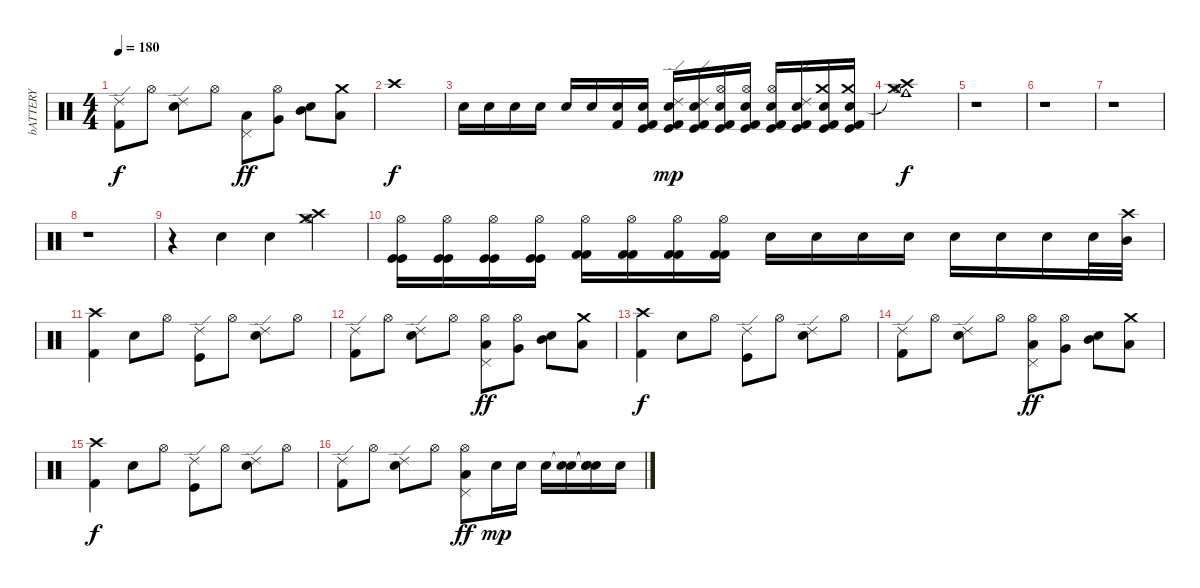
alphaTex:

\track ("bATTERY" "bATTERY") {instrument percussion}
\staff {score}
\articulation defaults
\ts (4 4)
\tempo 180
\clef neutral
\ks c
("Kick (hit) 2" "Ride (edge) 2").8{dy f} "Hi-Hat (open)".8 ("Electric Snare (hit)" "Ride (edge) 2").8 "Hi-Hat (open)".8 ("Pedal Hi-Hat (hit)" "Low Tom (hit)").8{dy ff} ("Very Low Tom (hit)" "Hi-Hat (open)").8 ("Mid Tom (hit)" "Electric Snare (hit)").8 ("Low Floor Tom (hit)" "Crash medium (hit)").8 |
"Crash high (hit)".1{dy f} |
"Electric Snare (hit)".16 "Electric Snare (hit)".16 "Electric Snare (hit)".16 "Electric Snare (hit)".16 "Electric Snare (hit)".16 "Electric Snare (hit)".16 ("Kick (hit) 2" "Electric Snare (hit)").16 ("Kick (hit) 2" "Kick (hit)" "Electric Snare (hit)").16 ("Kick (hit) 2" "Kick (hit)" "Ride (edge) 2" "Snare (hit) 2").16{dy mp} ("Kick (hit) 2" "Kick (hit)" "Ride (edge) 2" "Snare (hit) 2").16 ("Kick (hit) 2" "Kick (hit)" "Hi-Hat (open)" "Electric Snare (hit)").16 ("Kick (hit) 2" "Kick (hit)" "Hi-Hat (open)" "Electric Snare (hit)").16 ("Kick (hit) 2" "Kick (hit)" "Hi-Hat (open)" "Snare (hit) 2").16 ("Kick (hit) 2" "Kick (hit)" "Ride (edge) 2" "Snare (hit) 2").16 ("Kick (hit) 2" "Kick (hit)" "Crash medium (hit)" "Electric Snare (hit)").16 ("Kick (hit) 2" "Kick (hit)" "Crash medium (hit)" "Electric Snare (hit)").16 |
("Hi-Hat (open)" "Crash medium (hit)" "Crash high (hit)" "Cowbell medium (hit)"{t}).1{dy f} |
r.1 |
r.1 |
r.1 |
r.1 |
r.4 "Electric Snare (hit)".4 "Electric Snare (hit)".4 ("Crash medium (hit)" "Hi-Hat (open)" "Crash high (hit)").4 |
("Hi-Hat (open)" "Kick (hit)" "Kick (hit)").16 ("Hi-Hat (open)" "Kick (hit)" "Kick (hit)").16 ("Hi-Hat (open)" "Kick (hit)" "Kick (hit)").16 ("Hi-Hat (open)" "Kick (hit)" "Kick (hit)").16 ("Hi-Hat (open)" "Kick (hit) 2" "Kick (hit) 2").16 ("Hi-Hat (open)" "Kick (hit) 2" "Kick (hit) 2").16 ("Hi-Hat (open)" "Kick (hit) 2" "Kick (hit) 2").16 ("Hi-Hat (open)" "Kick (hit) 2" "Kick (hit) 2").16 "Electric Snare (hit)".16 "Electric Snare (hit)".16 "Electric Snare (hit)".16 "Electric Snare (hit)".16 "Snare (hit) 2".16 "Snare (hit) 2".16 "Snare (hit) 2".16 "Snare (hit) 2".32 ("Crash high (hit)" "Mid Tom (hit)").32 |
("Kick (hit) 2" "Crash high (hit)").4 "Electric Snare (hit)".8 "Hi-Hat (open)".8 ("Kick (hit)" "Ride (edge) 2").8 "Hi-Hat (open)".8 ("Electric Snare (hit)" "Ride (edge) 2").8 "Hi-Hat (open)".8 |
("Kick (hit) 2" "Ride (edge) 2").8 "Hi-Hat (open)".8 ("Electric Snare (hit)" "Ride (edge) 2").8 "Hi-Hat (open)".8 ("Pedal Hi-Hat (hit)" "Low Tom (hit)" "Hi-Hat (open)").8{dy ff} ("Very Low Tom (hit)" "Hi-Hat (open)").8 ("Mid Tom (hit)" "Electric Snare (hit)").8 ("Low Floor Tom (hit)" "Crash medium (hit)").8 |
("Kick (hit) 2" "Crash high (hit)").4{dy f} "Electric Snare (hit)".8 "Hi-Hat (open)".8 ("Kick (hit)" "Ride (edge) 2").8 "Hi-Hat (open)".8 ("Electric Snare (hit)" "Ride (edge) 2").8 "Hi-Hat (open)".8 |
("Kick (hit) 2" "Ride (edge) 2").8 "Hi-Hat (open)".8 ("Electric Snare (hit)" "Ride (edge) 2").8 "Hi-Hat (open)".8 ("Pedal Hi-Hat (hit)" "Low Tom (hit)" "Hi-Hat (open)").8{dy ff} ("Very Low Tom (hit)" "Hi-Hat (open)").8 ("Mid Tom (hit)" "Electric Snare (hit)").8 ("Low Floor Tom (hit)" "Crash medium (hit)").8 |
("Kick (hit) 2" "Crash high (hit)").4{dy f} "Electric Snare (hit)".8 "Hi-Hat (open)".8 ("Kick (hit)" "Ride (edge) 2").8 "Hi-Hat (open)".8 ("Electric Snare (hit)" "Ride (edge) 2").8 "Hi-Hat (open)".8 |
("Kick (hit) 2" "Ride (edge) 2").8 "Hi-Hat (open)".8 ("Electric Snare (hit)" "Ride (edge) 2").8 "Hi-Hat (open)".8 ("Pedal Hi-Hat (hit)" "Low Tom (hit)" "Hi-Hat (open)").8{dy ff} "Electric Snare (hit)".16{dy mp} "Electric Snare (hit)".16 "Electric Snare (hit)".16 ("Snare (hit)"{t} "Electric Snare (hit)").16 ("Snare (hit)"{t} "Snare (hit)"{t} "Snare (hit) 2").16 "Snare (hit) 2".16
